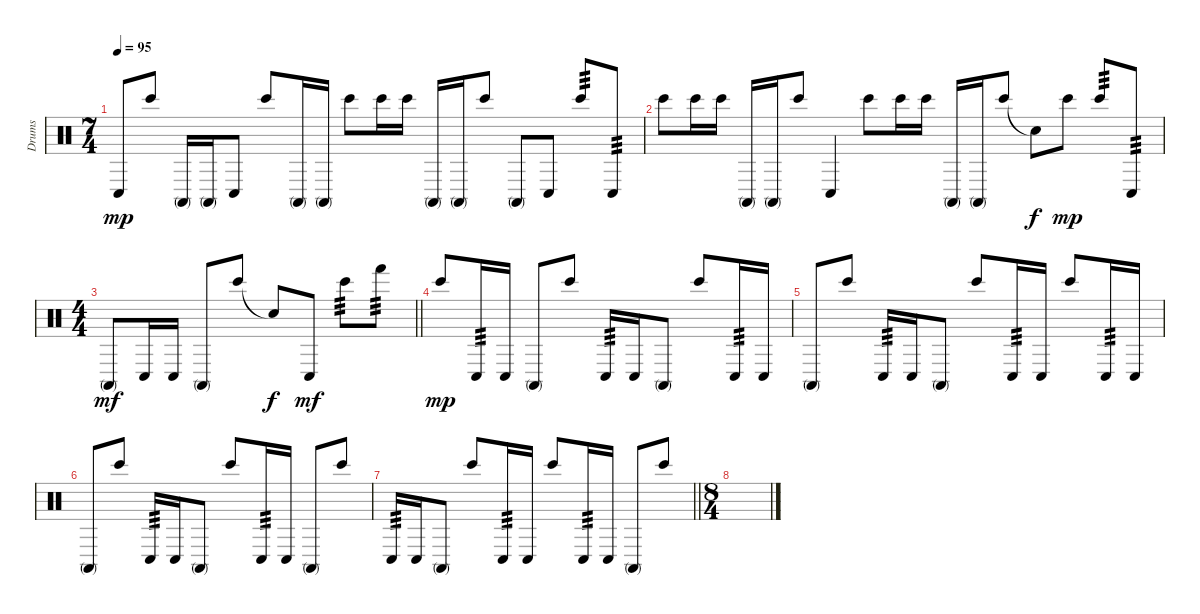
\track ("Drums" "Drums") {instrument percussion}
\staff {score}
\articulation defaults
\ts (7 4)
\tempo 95
\clef neutral
\ks c "Conga low (hit)".8{dy mp} "Bongo High (hit)".8 "Conga high (mute)".16 "Conga high (mute)".16 "Conga low (hit)".8 "Bongo High (hit)".8 "Conga high (mute)".16 "Conga high (mute)".16 "Bongo High (hit)".8 "Bongo High (hit)".16 "Bongo High (hit)".16 "Conga high (mute)".16 "Conga high (mute)".16 "Bongo High (hit)".8 "Conga high (mute)".8 "Conga low (hit)".8 "Bongo High (hit)".8{tp 3} "Conga low (hit)".8{tp 3}
|
"Bongo High (hit)".8 "Bongo High (hit)".16 "Bongo High (hit)".16 "Conga high (mute)".16 "Conga high (mute)".16 "Bongo High (hit)".8 "Conga low (hit)".4 "Bongo High (hit)".8 "Bongo High (hit)".16 "Bongo High (hit)".16 "Conga high (mute)".16 "Conga high (mute)".16 "Bongo High (hit)".8 "Snare (hit)"{t}.8{dy f} "Bongo High (hit)".8{dy mp} "Bongo High (hit)".8{tp 3} "Conga low (hit)".8{tp 3} |
\ts (4 4)
\barLineRight lightlight "Conga high (mute)".8{dy mf} "Conga low (hit)".16 "Conga low (hit)".16 "Conga high (mute)".8 "Bongo High (hit)".8 "Snare (hit)"{t}.8{dy f} "Conga low (hit)".8{dy mf} "Bongo High (hit)".8{tp 3} "Hand (hit)".8{tp 3}
|
\section ("" "")
"Bongo High (hit)".8{dy mp} "Conga low (hit)".16{tp 3} "Conga low (hit)".16 "Conga high (mute)".8 "Bongo High (hit)".8 "Conga low (hit)".16{tp 3} "Conga low (hit)".16 "Conga high (mute)".8 "Bongo High (hit)".8 "Conga low (hit)".16{tp 3} "Conga low (hit)".16 |
"Conga high (mute)".8 "Bongo High (hit)".8 "Conga low (hit)".16{tp 3} "Conga low (hit)".16 "Conga high (mute)".8 "Bongo High (hit)".8 "Conga low (hit)".16{tp 3} "Conga low (hit)".16 "Bongo High (hit)".8 "Conga low (hit)".16{tp 3} "Conga low (hit)".16 |
"Conga high (mute)".8 "Bongo High (hit)".8 "Conga low (hit)".16{tp 3} "Conga low (hit)".16 "Conga high (mute)".8 "Bongo High (hit)".8 "Conga low (hit)".16{tp 3} "Conga low (hit)".16 "Conga high (mute)".8 "Bongo High (hit)".8 |
\barLineRight lightlight "Conga low (hit)".16{tp 3} "Conga low (hit)".16 "Conga high (mute)".8 "Bongo High (hit)".8 "Conga low (hit)".16{tp 3} "Conga low (hit)".16 "Bongo High (hit)".8 "Conga low (hit)".16{tp 3} "Conga low (hit)".16 "Conga high (mute)".8 "Bongo High (hit)".8
|
\ts (8 4)
\section ("" "")
